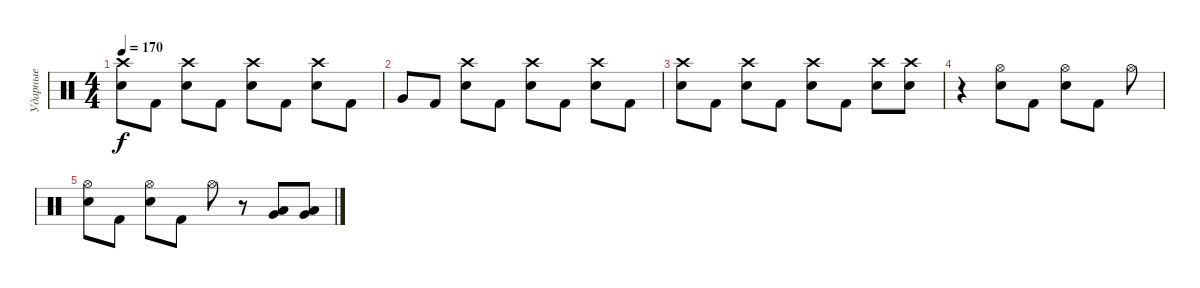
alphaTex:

\track ("Ударные" "Ударные") {instrument percussion}
\staff {score}
\articulation defaults
\ts (4 4)
\tempo 170
\clef neutral
\ks c
("Crash high (hit)" "Snare (hit) 2").8{dy f} "Kick (hit) 2".8 ("Crash high (hit)" "Snare (hit) 2").8 "Kick (hit) 2".8 ("Crash high (hit)" "Snare (hit) 2").8 "Kick (hit) 2".8 ("Crash high (hit)" "Snare (hit) 2").8 "Kick (hit) 2".8 |
"Very Low Tom (hit)".8 "Kick (hit) 2".8 ("Crash high (hit)" "Snare (hit) 2").8 "Kick (hit) 2".8 ("Crash high (hit)" "Snare (hit) 2").8 "Kick (hit) 2".8 ("Crash high (hit)" "Snare (hit) 2").8 "Kick (hit) 2".8 |
("Crash high (hit)" "Snare (hit) 2").8 "Kick (hit) 2".8 ("Crash high (hit)" "Snare (hit) 2").8 "Kick (hit) 2".8 ("Crash high (hit)" "Snare (hit) 2").8 "Kick (hit) 2".8 ("Crash high (hit)" "Snare (hit) 2").8 ("Crash high (hit)" "Snare (hit) 2").8 |
r.4 ("Hi-Hat (open)" "Snare (hit) 2").8 "Kick (hit) 2".8 ("Hi-Hat (open)" "Snare (hit) 2").8 "Kick (hit) 2".8 "Hi-Hat (open)".8 |
("Hi-Hat (open)" "Snare (hit) 2").8 "Kick (hit) 2".8 ("Hi-Hat (open)" "Snare (hit) 2").8 "Kick (hit) 2".8 "Hi-Hat (open)".8 r.8 ("Low Floor Tom (hit)" "Very Low Tom (hit)").8 ("Low Floor Tom (hit)" "Very Low Tom (hit)").8
